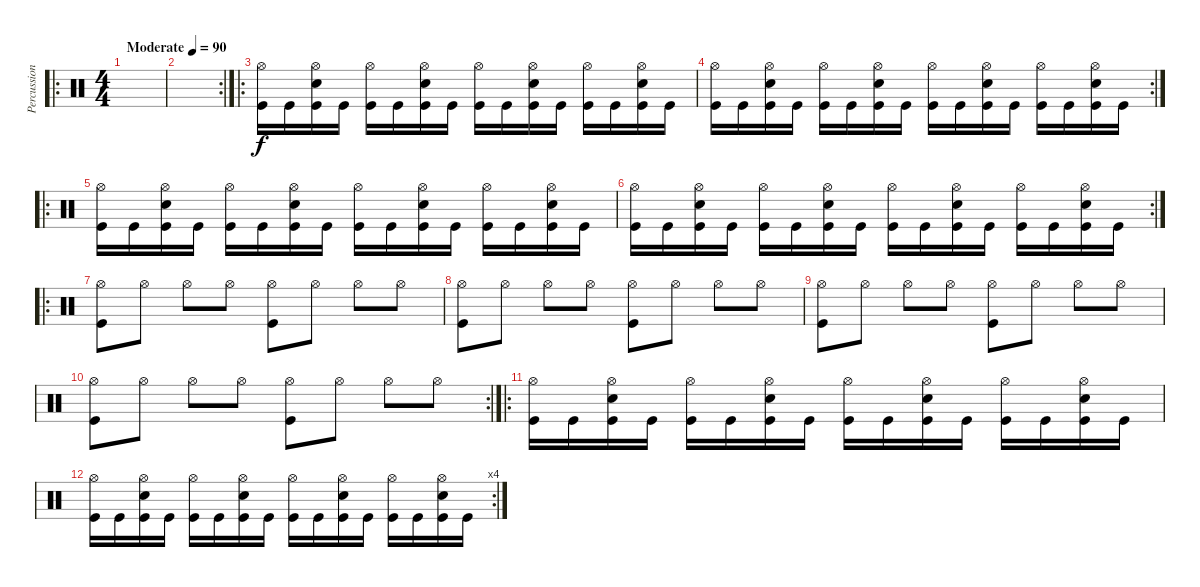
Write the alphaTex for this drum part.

\track ("Percussion" "Percussion") {instrument percussion}
\staff {score}
\articulation defaults
\ro
\ts (4 4)
\tempo (90 "Moderate")
\clef neutral
\ks c
|
\rc 2
|
\ro
("Hi-Hat (open)" "Kick (hit)").16 "Kick (hit)".16 ("Hi-Hat (open)" "Snare (hit) 2" "Kick (hit)").16 "Kick (hit)".16 ("Hi-Hat (open)" "Kick (hit)").16 "Kick (hit)".16 ("Hi-Hat (open)" "Snare (hit) 2" "Kick (hit)").16 "Kick (hit)".16 ("Hi-Hat (open)" "Kick (hit)").16 "Kick (hit)".16 ("Hi-Hat (open)" "Snare (hit) 2" "Kick (hit)").16 "Kick (hit)".16 ("Hi-Hat (open)" "Kick (hit)").16 "Kick (hit)".16 ("Hi-Hat (open)" "Snare (hit) 2" "Kick (hit)").16 "Kick (hit)".16 |
\rc 2
("Hi-Hat (open)" "Kick (hit)").16 "Kick (hit)".16 ("Hi-Hat (open)" "Snare (hit) 2" "Kick (hit)").16 "Kick (hit)".16 ("Hi-Hat (open)" "Kick (hit)").16 "Kick (hit)".16 ("Hi-Hat (open)" "Snare (hit) 2" "Kick (hit)").16 "Kick (hit)".16 ("Hi-Hat (open)" "Kick (hit)").16 "Kick (hit)".16 ("Hi-Hat (open)" "Snare (hit) 2" "Kick (hit)").16 "Kick (hit)".16 ("Hi-Hat (open)" "Kick (hit)").16 "Kick (hit)".16 ("Hi-Hat (open)" "Snare (hit) 2" "Kick (hit)").16 "Kick (hit)".16 |
\ro
("Hi-Hat (open)" "Kick (hit)").16 "Kick (hit)".16 ("Hi-Hat (open)" "Snare (hit) 2" "Kick (hit)").16 "Kick (hit)".16 ("Hi-Hat (open)" "Kick (hit)").16 "Kick (hit)".16 ("Hi-Hat (open)" "Snare (hit) 2" "Kick (hit)").16 "Kick (hit)".16 ("Hi-Hat (open)" "Kick (hit)").16 "Kick (hit)".16 ("Hi-Hat (open)" "Snare (hit) 2" "Kick (hit)").16 "Kick (hit)".16 ("Hi-Hat (open)" "Kick (hit)").16 "Kick (hit)".16 ("Hi-Hat (open)" "Snare (hit) 2" "Kick (hit)").16 "Kick (hit)".16 |
\rc 2
("Hi-Hat (open)" "Kick (hit)").16 "Kick (hit)".16 ("Hi-Hat (open)" "Snare (hit) 2" "Kick (hit)").16 "Kick (hit)".16 ("Hi-Hat (open)" "Kick (hit)").16 "Kick (hit)".16 ("Hi-Hat (open)" "Snare (hit) 2" "Kick (hit)").16 "Kick (hit)".16 ("Hi-Hat (open)" "Kick (hit)").16 "Kick (hit)".16 ("Hi-Hat (open)" "Snare (hit) 2" "Kick (hit)").16 "Kick (hit)".16 ("Hi-Hat (open)" "Kick (hit)").16 "Kick (hit)".16 ("Hi-Hat (open)" "Snare (hit) 2" "Kick (hit)").16 "Kick (hit)".16 |
\ro
("Hi-Hat (open)" "Kick (hit)").8 "Hi-Hat (open)".8 "Hi-Hat (open)".8 "Hi-Hat (open)".8 ("Hi-Hat (open)" "Kick (hit)").8 "Hi-Hat (open)".8 "Hi-Hat (open)".8 "Hi-Hat (open)".8 |
("Hi-Hat (open)" "Kick (hit)").8 "Hi-Hat (open)".8 "Hi-Hat (open)".8 "Hi-Hat (open)".8 ("Hi-Hat (open)" "Kick (hit)").8 "Hi-Hat (open)".8 "Hi-Hat (open)".8 "Hi-Hat (open)".8 |
("Hi-Hat (open)" "Kick (hit)").8 "Hi-Hat (open)".8 "Hi-Hat (open)".8 "Hi-Hat (open)".8 ("Hi-Hat (open)" "Kick (hit)").8 "Hi-Hat (open)".8 "Hi-Hat (open)".8 "Hi-Hat (open)".8 |
\rc 2
("Hi-Hat (open)" "Kick (hit)").8 "Hi-Hat (open)".8 "Hi-Hat (open)".8 "Hi-Hat (open)".8 ("Hi-Hat (open)" "Kick (hit)").8 "Hi-Hat (open)".8 "Hi-Hat (open)".8 "Hi-Hat (open)".8 |
\ro
("Hi-Hat (open)" "Kick (hit)").16 "Kick (hit)".16 ("Hi-Hat (open)" "Snare (hit) 2" "Kick (hit)").16 "Kick (hit)".16 ("Hi-Hat (open)" "Kick (hit)").16 "Kick (hit)".16 ("Hi-Hat (open)" "Snare (hit) 2" "Kick (hit)").16 "Kick (hit)".16 ("Hi-Hat (open)" "Kick (hit)").16 "Kick (hit)".16 ("Hi-Hat (open)" "Snare (hit) 2" "Kick (hit)").16 "Kick (hit)".16 ("Hi-Hat (open)" "Kick (hit)").16 "Kick (hit)".16 ("Hi-Hat (open)" "Snare (hit) 2" "Kick (hit)").16 "Kick (hit)".16 |
\rc 4
("Hi-Hat (open)" "Kick (hit)").16 "Kick (hit)".16 ("Hi-Hat (open)" "Snare (hit) 2" "Kick (hit)").16 "Kick (hit)".16 ("Hi-Hat (open)" "Kick (hit)").16 "Kick (hit)".16 ("Hi-Hat (open)" "Snare (hit) 2" "Kick (hit)").16 "Kick (hit)".16 ("Hi-Hat (open)" "Kick (hit)").16 "Kick (hit)".16 ("Hi-Hat (open)" "Snare (hit) 2" "Kick (hit)").16 "Kick (hit)".16 ("Hi-Hat (open)" "Kick (hit)").16 "Kick (hit)".16 ("Hi-Hat (open)" "Snare (hit) 2" "Kick (hit)").16 "Kick (hit)".16
